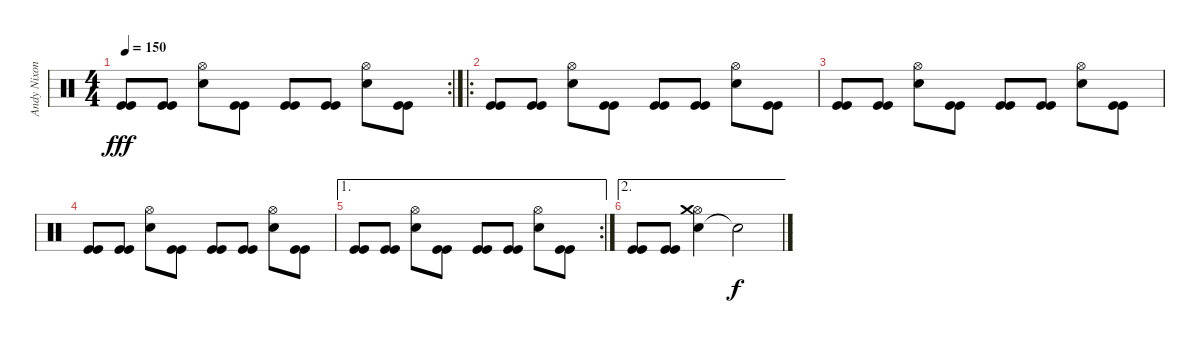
\track ("Andy Nixon (drums)" "Andy Nixon") {instrument percussion}
\staff {score}
\articulation defaults
\rc 2
\ts (4 4)
\tempo 150
\clef neutral
\ks c
("Kick (hit)" "Kick (hit)").8{dy fff} ("Kick (hit)" "Kick (hit)").8 ("Snare (hit) 2" "Hi-Hat (open)").8 ("Kick (hit)" "Kick (hit)").8 ("Kick (hit)" "Kick (hit)").8 ("Kick (hit)" "Kick (hit)").8 ("Snare (hit) 2" "Hi-Hat (open)").8 ("Kick (hit)" "Kick (hit)").8 |
\ro
("Kick (hit)" "Kick (hit)").8 ("Kick (hit)" "Kick (hit)").8 ("Snare (hit) 2" "Hi-Hat (open)").8 ("Kick (hit)" "Kick (hit)").8 ("Kick (hit)" "Kick (hit)").8 ("Kick (hit)" "Kick (hit)").8 ("Snare (hit) 2" "Hi-Hat (open)").8 ("Kick (hit)" "Kick (hit)").8 |
("Kick (hit)" "Kick (hit)").8 ("Kick (hit)" "Kick (hit)").8 ("Snare (hit) 2" "Hi-Hat (open)").8 ("Kick (hit)" "Kick (hit)").8 ("Kick (hit)" "Kick (hit)").8 ("Kick (hit)" "Kick (hit)").8 ("Snare (hit) 2" "Hi-Hat (open)").8 ("Kick (hit)" "Kick (hit)").8 |
("Kick (hit)" "Kick (hit)").8 ("Kick (hit)" "Kick (hit)").8 ("Snare (hit) 2" "Hi-Hat (open)").8 ("Kick (hit)" "Kick (hit)").8 ("Kick (hit)" "Kick (hit)").8 ("Kick (hit)" "Kick (hit)").8 ("Snare (hit) 2" "Hi-Hat (open)").8 ("Kick (hit)" "Kick (hit)").8 |
\ae 1
\rc 2
("Kick (hit)" "Kick (hit)").8 ("Kick (hit)" "Kick (hit)").8 ("Snare (hit) 2" "Hi-Hat (open)").8 ("Kick (hit)" "Kick (hit)").8 ("Kick (hit)" "Kick (hit)").8 ("Kick (hit)" "Kick (hit)").8 ("Snare (hit) 2" "Hi-Hat (open)").8 ("Kick (hit)" "Kick (hit)").8 |
\ae 2
("Kick (hit)" "Kick (hit)").8 ("Kick (hit)" "Kick (hit)").8 ("Snare (hit) 2" "Hi-Hat (open)" "Crash medium (hit)").4 "Snare (hit)"{t}.2{dy f}
